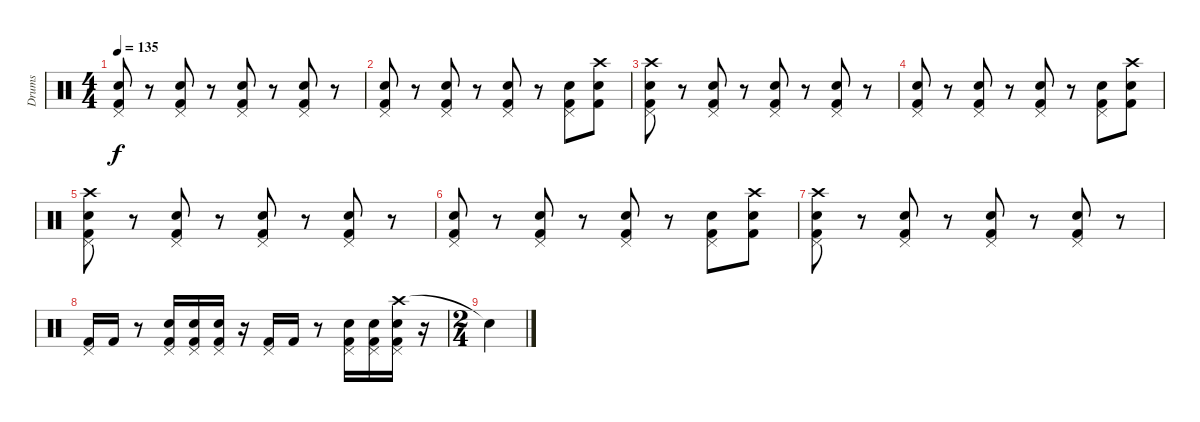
\track ("Drums" "Drums") {instrument percussion}
\staff {score}
\articulation defaults
\ts (4 4)
\tempo 135
\clef neutral
\ks c
("Pedal Hi-Hat (hit)" "Snare (hit) 2" "Kick (hit) 2").8{dy f} r.8 ("Pedal Hi-Hat (hit)" "Snare (hit) 2" "Kick (hit) 2").8 r.8 ("Pedal Hi-Hat (hit)" "Snare (hit) 2" "Kick (hit) 2").8 r.8 ("Pedal Hi-Hat (hit)" "Snare (hit) 2" "Kick (hit) 2").8 r.8 |
("Pedal Hi-Hat (hit)" "Snare (hit) 2" "Kick (hit) 2").8 r.8 ("Pedal Hi-Hat (hit)" "Snare (hit) 2" "Kick (hit) 2").8 r.8 ("Pedal Hi-Hat (hit)" "Snare (hit) 2" "Kick (hit) 2").8 r.8 ("Pedal Hi-Hat (hit)" "Snare (hit) 2" "Kick (hit) 2").8 ("Crash high (hit)" "Snare (hit) 2" "Kick (hit) 2").8 |
("Crash high (hit)" "Pedal Hi-Hat (hit)" "Snare (hit) 2" "Kick (hit) 2").8 r.8 ("Pedal Hi-Hat (hit)" "Snare (hit) 2" "Kick (hit) 2").8 r.8 ("Pedal Hi-Hat (hit)" "Snare (hit) 2" "Kick (hit) 2").8 r.8 ("Pedal Hi-Hat (hit)" "Snare (hit) 2" "Kick (hit) 2").8 r.8 |
("Pedal Hi-Hat (hit)" "Snare (hit) 2" "Kick (hit) 2").8 r.8 ("Pedal Hi-Hat (hit)" "Snare (hit) 2" "Kick (hit) 2").8 r.8 ("Pedal Hi-Hat (hit)" "Snare (hit) 2" "Kick (hit) 2").8 r.8 ("Pedal Hi-Hat (hit)" "Snare (hit) 2" "Kick (hit) 2").8 ("Crash high (hit)" "Snare (hit) 2" "Kick (hit) 2").8 |
("Crash high (hit)" "Pedal Hi-Hat (hit)" "Snare (hit) 2" "Kick (hit) 2").8 r.8 ("Pedal Hi-Hat (hit)" "Snare (hit) 2" "Kick (hit) 2").8 r.8 ("Pedal Hi-Hat (hit)" "Snare (hit) 2" "Kick (hit) 2").8 r.8 ("Pedal Hi-Hat (hit)" "Snare (hit) 2" "Kick (hit) 2").8 r.8 |
("Pedal Hi-Hat (hit)" "Snare (hit) 2" "Kick (hit) 2").8 r.8 ("Pedal Hi-Hat (hit)" "Snare (hit) 2" "Kick (hit) 2").8 r.8 ("Pedal Hi-Hat (hit)" "Snare (hit) 2" "Kick (hit) 2").8 r.8 ("Pedal Hi-Hat (hit)" "Snare (hit) 2" "Kick (hit) 2").8 ("Crash high (hit)" "Snare (hit) 2" "Kick (hit) 2").8 |
("Crash high (hit)" "Pedal Hi-Hat (hit)" "Snare (hit) 2" "Kick (hit) 2").8 r.8 ("Pedal Hi-Hat (hit)" "Snare (hit) 2" "Kick (hit) 2").8 r.8 ("Pedal Hi-Hat (hit)" "Snare (hit) 2" "Kick (hit) 2").8 r.8 ("Pedal Hi-Hat (hit)" "Snare (hit) 2" "Kick (hit) 2").8 r.8 |
("Pedal Hi-Hat (hit)" "Kick (hit) 2").16 "Kick (hit) 2".16 r.8 ("Pedal Hi-Hat (hit)" "Snare (hit) 2" "Kick (hit) 2").16 ("Pedal Hi-Hat (hit)" "Snare (hit) 2" "Kick (hit) 2").16 ("Pedal Hi-Hat (hit)" "Snare (hit) 2" "Kick (hit) 2").16 r.16 ("Pedal Hi-Hat (hit)" "Kick (hit) 2").16 "Kick (hit) 2".16 r.8 ("Pedal Hi-Hat (hit)" "Snare (hit) 2" "Kick (hit) 2").16 ("Pedal Hi-Hat (hit)" "Snare (hit) 2" "Kick (hit) 2").16 ("Crash high (hit)" "Pedal Hi-Hat (hit)" "Snare (hit) 2" "Kick (hit) 2").16 r.16 |
\ts (2 4)
"Snare (hit)"{t}.4
